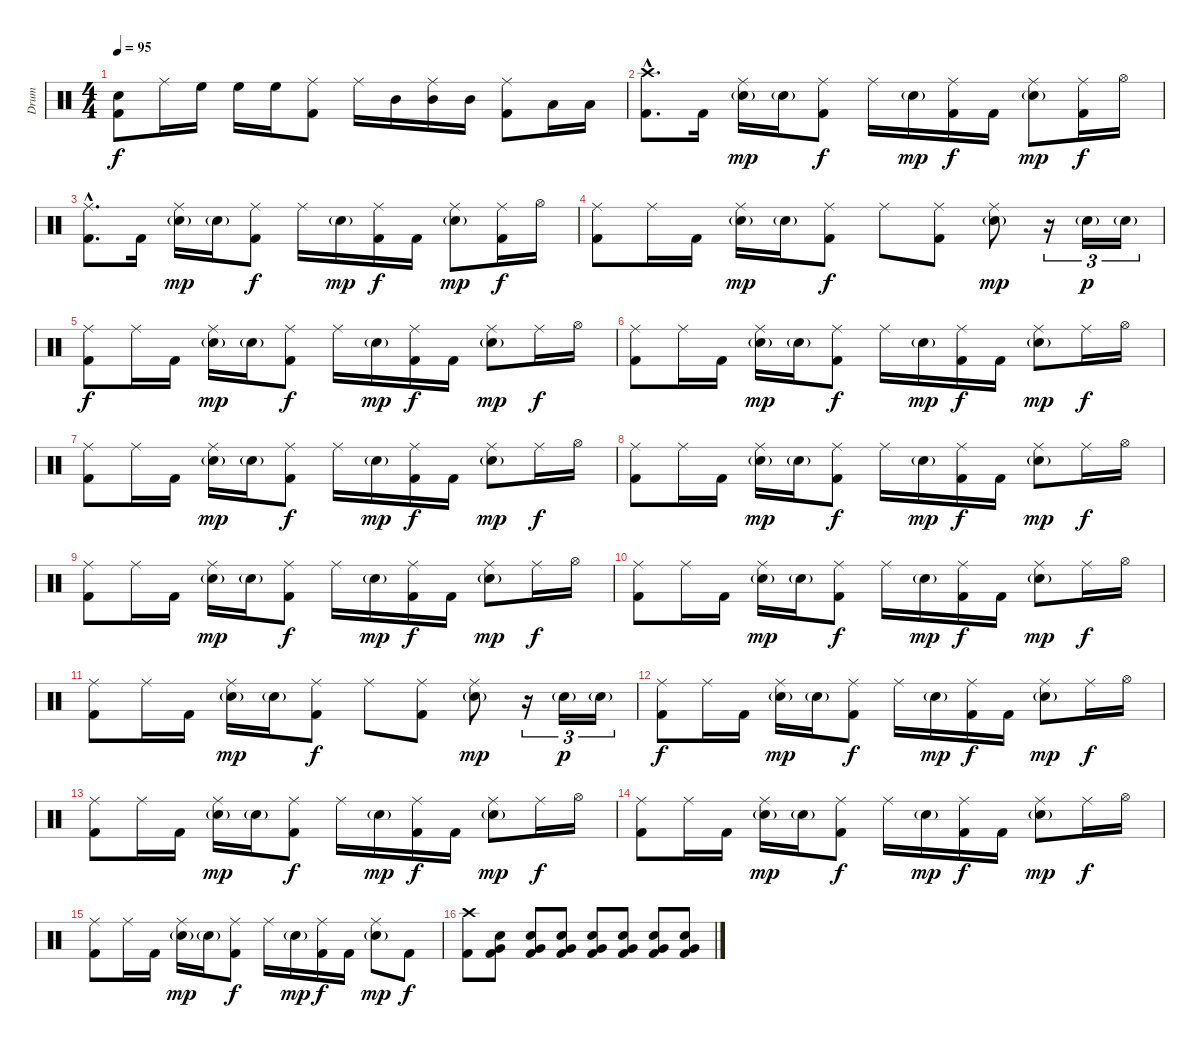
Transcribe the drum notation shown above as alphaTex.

\track ("Drum" "Drum") {instrument percussion}
\staff {score}
\articulation defaults
\ts (4 4)
\tempo 95
\clef neutral
\ks c
("Electric Snare (hit)" "Kick (hit) 2").8{dy f} "Ride (middle)".16 "High Floor Tom (hit)".16 "High Floor Tom (hit)".16 "High Floor Tom (hit)".16 ("Ride (middle)" "Kick (hit) 2").8 "Ride (middle)".16 "Mid Tom (hit)".16 ("Ride (middle)" "Mid Tom (hit)").16 "Mid Tom (hit)".16 ("Ride (middle)" "Kick (hit) 2").8 "Low Tom (hit)".16 "Low Tom (hit)".16 |
("Crash high (hit)"{hac} "Kick (hit) 2"{hac}).8{d} "Kick (hit) 2".16 ("Ride (middle)" "Electric Snare (hit)"{g}).16{dy mp} "Electric Snare (hit)"{g}.16 ("Ride (middle)" "Kick (hit) 2").8{dy f} "Ride (middle)".16 "Electric Snare (hit)"{g}.16{dy mp} ("Ride (middle)" "Kick (hit) 2").16{dy f} "Kick (hit) 2".16 ("Ride (middle)" "Electric Snare (hit)"{g}).8{dy mp} ("Ride (middle)" "Kick (hit) 2").16{dy f} "Hi-Hat (open)".16 |
("Ride (middle)"{hac} "Kick (hit) 2"{hac}).8{d} "Kick (hit) 2".16 ("Ride (middle)" "Electric Snare (hit)"{g}).16{dy mp} "Electric Snare (hit)"{g}.16 ("Ride (middle)" "Kick (hit) 2").8{dy f} "Ride (middle)".16 "Electric Snare (hit)"{g}.16{dy mp} ("Ride (middle)" "Kick (hit) 2").16{dy f} "Kick (hit) 2".16 ("Ride (middle)" "Electric Snare (hit)"{g}).8{dy mp} ("Ride (middle)" "Kick (hit) 2").16{dy f} "Hi-Hat (open)".16 |
("Ride (middle)" "Kick (hit) 2").8 "Ride (middle)".16 "Kick (hit) 2".16 ("Ride (middle)" "Electric Snare (hit)"{g}).16{dy mp} "Electric Snare (hit)"{g}.16 ("Ride (middle)" "Kick (hit) 2").8{dy f} "Ride (middle)".8 ("Ride (middle)" "Kick (hit) 2").8 ("Ride (middle)" "Electric Snare (hit)"{g}).8{dy mp} r.16{tu (3 2)} "Electric Snare (hit)"{g}.16{tu (3 2) dy p} "Electric Snare (hit)"{g}.16{tu (3 2)} |
("Ride (middle)" "Kick (hit) 2").8{dy f} "Ride (middle)".16 "Kick (hit) 2".16 ("Ride (middle)" "Electric Snare (hit)"{g}).16{dy mp} "Electric Snare (hit)"{g}.16 ("Ride (middle)" "Kick (hit) 2").8{dy f} "Ride (middle)".16 "Electric Snare (hit)"{g}.16{dy mp} ("Ride (middle)" "Kick (hit) 2").16{dy f} "Kick (hit) 2".16 ("Ride (middle)" "Electric Snare (hit)"{g}).8{dy mp} "Ride (middle)".16{dy f} "Hi-Hat (open)".16 |
("Ride (middle)" "Kick (hit) 2").8 "Ride (middle)".16 "Kick (hit) 2".16 ("Ride (middle)" "Electric Snare (hit)"{g}).16{dy mp} "Electric Snare (hit)"{g}.16 ("Ride (middle)" "Kick (hit) 2").8{dy f} "Ride (middle)".16 "Electric Snare (hit)"{g}.16{dy mp} ("Ride (middle)" "Kick (hit) 2").16{dy f} "Kick (hit) 2".16 ("Ride (middle)" "Electric Snare (hit)"{g}).8{dy mp} "Ride (middle)".16{dy f} "Hi-Hat (open)".16 |
("Ride (middle)" "Kick (hit) 2").8 "Ride (middle)".16 "Kick (hit) 2".16 ("Ride (middle)" "Electric Snare (hit)"{g}).16{dy mp} "Electric Snare (hit)"{g}.16 ("Ride (middle)" "Kick (hit) 2").8{dy f} "Ride (middle)".16 "Electric Snare (hit)"{g}.16{dy mp} ("Ride (middle)" "Kick (hit) 2").16{dy f} "Kick (hit) 2".16 ("Ride (middle)" "Electric Snare (hit)"{g}).8{dy mp} "Ride (middle)".16{dy f} "Hi-Hat (open)".16 |
("Ride (middle)" "Kick (hit) 2").8 "Ride (middle)".16 "Kick (hit) 2".16 ("Ride (middle)" "Electric Snare (hit)"{g}).16{dy mp} "Electric Snare (hit)"{g}.16 ("Ride (middle)" "Kick (hit) 2").8{dy f} "Ride (middle)".16 "Electric Snare (hit)"{g}.16{dy mp} ("Ride (middle)" "Kick (hit) 2").16{dy f} "Kick (hit) 2".16 ("Ride (middle)" "Electric Snare (hit)"{g}).8{dy mp} "Ride (middle)".16{dy f} "Hi-Hat (open)".16 |
("Ride (middle)" "Kick (hit) 2").8 "Ride (middle)".16 "Kick (hit) 2".16 ("Ride (middle)" "Electric Snare (hit)"{g}).16{dy mp} "Electric Snare (hit)"{g}.16 ("Ride (middle)" "Kick (hit) 2").8{dy f} "Ride (middle)".16 "Electric Snare (hit)"{g}.16{dy mp} ("Ride (middle)" "Kick (hit) 2").16{dy f} "Kick (hit) 2".16 ("Ride (middle)" "Electric Snare (hit)"{g}).8{dy mp} "Ride (middle)".16{dy f} "Hi-Hat (open)".16 |
("Ride (middle)" "Kick (hit) 2").8 "Ride (middle)".16 "Kick (hit) 2".16 ("Ride (middle)" "Electric Snare (hit)"{g}).16{dy mp} "Electric Snare (hit)"{g}.16 ("Ride (middle)" "Kick (hit) 2").8{dy f} "Ride (middle)".16 "Electric Snare (hit)"{g}.16{dy mp} ("Ride (middle)" "Kick (hit) 2").16{dy f} "Kick (hit) 2".16 ("Ride (middle)" "Electric Snare (hit)"{g}).8{dy mp} "Ride (middle)".16{dy f} "Hi-Hat (open)".16 |
("Ride (middle)" "Kick (hit) 2").8 "Ride (middle)".16 "Kick (hit) 2".16 ("Ride (middle)" "Electric Snare (hit)"{g}).16{dy mp} "Electric Snare (hit)"{g}.16 ("Ride (middle)" "Kick (hit) 2").8{dy f} "Ride (middle)".8 ("Ride (middle)" "Kick (hit) 2").8 ("Ride (middle)" "Electric Snare (hit)"{g}).8{dy mp} r.16{tu (3 2)} "Electric Snare (hit)"{g}.16{tu (3 2) dy p} "Electric Snare (hit)"{g}.16{tu (3 2)} |
("Ride (middle)" "Kick (hit) 2").8{dy f} "Ride (middle)".16 "Kick (hit) 2".16 ("Ride (middle)" "Electric Snare (hit)"{g}).16{dy mp} "Electric Snare (hit)"{g}.16 ("Ride (middle)" "Kick (hit) 2").8{dy f} "Ride (middle)".16 "Electric Snare (hit)"{g}.16{dy mp} ("Ride (middle)" "Kick (hit) 2").16{dy f} "Kick (hit) 2".16 ("Ride (middle)" "Electric Snare (hit)"{g}).8{dy mp} "Ride (middle)".16{dy f} "Hi-Hat (open)".16 |
("Ride (middle)" "Kick (hit) 2").8 "Ride (middle)".16 "Kick (hit) 2".16 ("Ride (middle)" "Electric Snare (hit)"{g}).16{dy mp} "Electric Snare (hit)"{g}.16 ("Ride (middle)" "Kick (hit) 2").8{dy f} "Ride (middle)".16 "Electric Snare (hit)"{g}.16{dy mp} ("Ride (middle)" "Kick (hit) 2").16{dy f} "Kick (hit) 2".16 ("Ride (middle)" "Electric Snare (hit)"{g}).8{dy mp} "Ride (middle)".16{dy f} "Hi-Hat (open)".16 |
("Ride (middle)" "Kick (hit) 2").8 "Ride (middle)".16 "Kick (hit) 2".16 ("Ride (middle)" "Electric Snare (hit)"{g}).16{dy mp} "Electric Snare (hit)"{g}.16 ("Ride (middle)" "Kick (hit) 2").8{dy f} "Ride (middle)".16 "Electric Snare (hit)"{g}.16{dy mp} ("Ride (middle)" "Kick (hit) 2").16{dy f} "Kick (hit) 2".16 ("Ride (middle)" "Electric Snare (hit)"{g}).8{dy mp} "Ride (middle)".16{dy f} "Hi-Hat (open)".16 |
("Ride (middle)" "Kick (hit) 2").8 "Ride (middle)".16 "Kick (hit) 2".16 ("Ride (middle)" "Electric Snare (hit)"{g}).16{dy mp} "Electric Snare (hit)"{g}.16 ("Ride (middle)" "Kick (hit) 2").8{dy f} "Ride (middle)".16 "Electric Snare (hit)"{g}.16{dy mp} ("Ride (middle)" "Kick (hit) 2").16{dy f} "Kick (hit) 2".16 ("Ride (middle)" "Electric Snare (hit)"{g}).8{dy mp} "Kick (hit) 2".8{dy f} |
("Crash high (hit)" "Kick (hit) 2").8 ("Electric Snare (hit)" "Very Low Tom (hit)" "Kick (hit) 2").8 ("Electric Snare (hit)" "Very Low Tom (hit)" "Kick (hit) 2").8 ("Electric Snare (hit)" "Very Low Tom (hit)" "Kick (hit) 2").8 ("Electric Snare (hit)" "Very Low Tom (hit)" "Kick (hit) 2").8 ("Electric Snare (hit)" "Very Low Tom (hit)" "Kick (hit) 2").8 ("Electric Snare (hit)" "Very Low Tom (hit)" "Kick (hit) 2").8 ("Electric Snare (hit)" "Very Low Tom (hit)" "Kick (hit) 2").8
